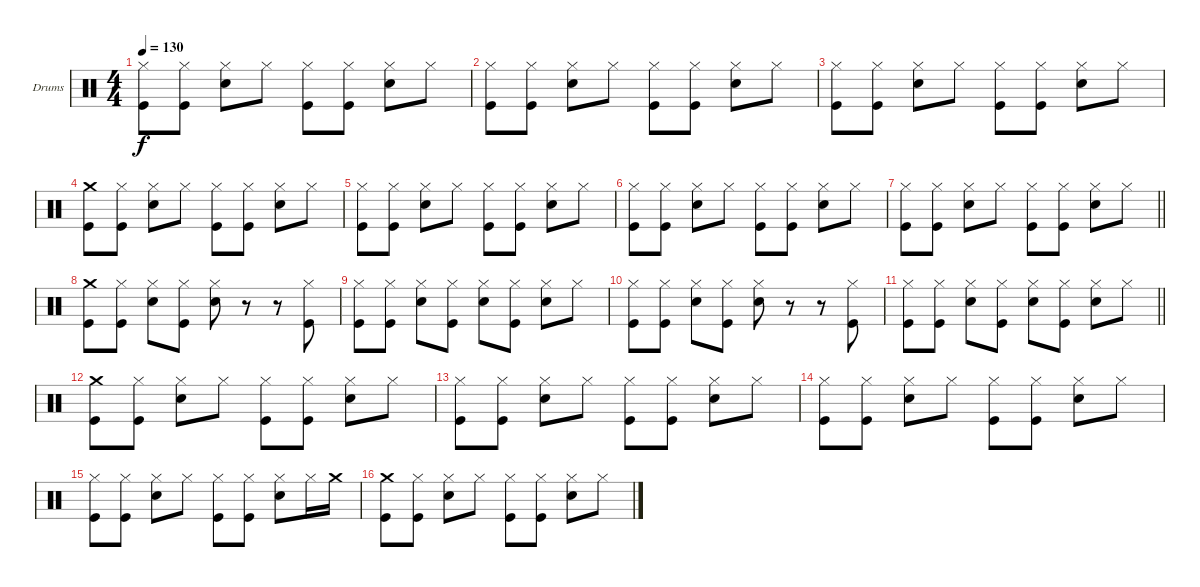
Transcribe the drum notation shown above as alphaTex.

\defaultSystemsLayout 4
\bracketExtendMode groupsimilarinstruments
\firstSystemTrackNameOrientation horizontal
\otherSystemsTrackNameOrientation horizontal
\track ("Drumkit" "Drums") {instrument percussion}
\staff {score}
\articulation defaults
\ts (4 4)
\tempo 130
\clef neutral
\ks aminor
("Kick (hit)" "Hi-Hat (closed)").8{dy f} ("Kick (hit)" "Hi-Hat (closed)").8 ("Snare (hit) 2" "Hi-Hat (closed)").8 "Hi-Hat (closed)".8 ("Kick (hit)" "Hi-Hat (closed)").8 ("Kick (hit)" "Hi-Hat (closed)").8 ("Snare (hit) 2" "Hi-Hat (closed)").8 "Hi-Hat (closed)".8 |
("Kick (hit)" "Hi-Hat (closed)").8 ("Kick (hit)" "Hi-Hat (closed)").8 ("Snare (hit) 2" "Hi-Hat (closed)").8 "Hi-Hat (closed)".8 ("Kick (hit)" "Hi-Hat (closed)").8 ("Kick (hit)" "Hi-Hat (closed)").8 ("Snare (hit) 2" "Hi-Hat (closed)").8 "Hi-Hat (closed)".8 |
("Kick (hit)" "Hi-Hat (closed)").8 ("Kick (hit)" "Hi-Hat (closed)").8 ("Snare (hit) 2" "Hi-Hat (closed)").8 "Hi-Hat (closed)".8 ("Kick (hit)" "Hi-Hat (closed)").8 ("Kick (hit)" "Hi-Hat (closed)").8 ("Snare (hit) 2" "Hi-Hat (closed)").8 "Hi-Hat (closed)".8 |
("Kick (hit)" "Crash medium (hit)").8 ("Kick (hit)" "Hi-Hat (closed)").8 ("Snare (hit) 2" "Hi-Hat (closed)").8 "Hi-Hat (closed)".8 ("Kick (hit)" "Hi-Hat (closed)").8 ("Kick (hit)" "Hi-Hat (closed)").8 ("Snare (hit) 2" "Hi-Hat (closed)").8 "Hi-Hat (closed)".8 |
("Kick (hit)" "Hi-Hat (closed)").8 ("Kick (hit)" "Hi-Hat (closed)").8 ("Snare (hit) 2" "Hi-Hat (closed)").8 "Hi-Hat (closed)".8 ("Kick (hit)" "Hi-Hat (closed)").8 ("Kick (hit)" "Hi-Hat (closed)").8 ("Snare (hit) 2" "Hi-Hat (closed)").8 "Hi-Hat (closed)".8 |
("Kick (hit)" "Hi-Hat (closed)").8 ("Kick (hit)" "Hi-Hat (closed)").8 ("Snare (hit) 2" "Hi-Hat (closed)").8 "Hi-Hat (closed)".8 ("Kick (hit)" "Hi-Hat (closed)").8 ("Kick (hit)" "Hi-Hat (closed)").8 ("Snare (hit) 2" "Hi-Hat (closed)").8 "Hi-Hat (closed)".8 |
\barLineRight lightlight
("Kick (hit)" "Hi-Hat (closed)").8 ("Kick (hit)" "Hi-Hat (closed)").8 ("Snare (hit) 2" "Hi-Hat (closed)").8 "Hi-Hat (closed)".8 ("Kick (hit)" "Hi-Hat (closed)").8 ("Kick (hit)" "Hi-Hat (closed)").8 ("Snare (hit) 2" "Hi-Hat (closed)").8 "Hi-Hat (closed)".8 |
("Kick (hit)" "Crash medium (hit)").8 ("Kick (hit)" "Hi-Hat (closed)").8 ("Snare (hit) 2" "Hi-Hat (closed)").8 ("Kick (hit)" "Hi-Hat (closed)").8 ("Snare (hit) 2" "Hi-Hat (closed)").8 r.8 r.8 ("Kick (hit)" "Hi-Hat (closed)").8 |
("Kick (hit)" "Hi-Hat (closed)").8 ("Kick (hit)" "Hi-Hat (closed)").8 ("Snare (hit) 2" "Hi-Hat (closed)").8 ("Kick (hit)" "Hi-Hat (closed)").8 ("Snare (hit) 2" "Hi-Hat (closed)").8 ("Kick (hit)" "Hi-Hat (closed)").8 ("Snare (hit) 2" "Hi-Hat (closed)").8 "Hi-Hat (closed)".8 |
("Kick (hit)" "Hi-Hat (closed)").8 ("Kick (hit)" "Hi-Hat (closed)").8 ("Snare (hit) 2" "Hi-Hat (closed)").8 ("Kick (hit)" "Hi-Hat (closed)").8 ("Snare (hit) 2" "Hi-Hat (closed)").8 r.8 r.8 ("Kick (hit)" "Hi-Hat (closed)").8 |
\barLineRight lightlight
("Kick (hit)" "Hi-Hat (closed)").8 ("Kick (hit)" "Hi-Hat (closed)").8 ("Snare (hit) 2" "Hi-Hat (closed)").8 ("Kick (hit)" "Hi-Hat (closed)").8 ("Snare (hit) 2" "Hi-Hat (closed)").8 ("Kick (hit)" "Hi-Hat (closed)").8 ("Snare (hit) 2" "Hi-Hat (closed)").8 "Hi-Hat (closed)".8 |
("Kick (hit)" "Crash medium (hit)").8 ("Kick (hit)" "Hi-Hat (closed)").8 ("Snare (hit) 2" "Hi-Hat (closed)").8 "Hi-Hat (closed)".8 ("Kick (hit)" "Hi-Hat (closed)").8 ("Kick (hit)" "Hi-Hat (closed)").8 ("Snare (hit) 2" "Hi-Hat (closed)").8 "Hi-Hat (closed)".8 |
("Kick (hit)" "Hi-Hat (closed)").8 ("Kick (hit)" "Hi-Hat (closed)").8 ("Snare (hit) 2" "Hi-Hat (closed)").8 "Hi-Hat (closed)".8 ("Kick (hit)" "Hi-Hat (closed)").8 ("Kick (hit)" "Hi-Hat (closed)").8 ("Snare (hit) 2" "Hi-Hat (closed)").8 "Hi-Hat (closed)".8 |
("Kick (hit)" "Hi-Hat (closed)").8 ("Kick (hit)" "Hi-Hat (closed)").8 ("Snare (hit) 2" "Hi-Hat (closed)").8 "Hi-Hat (closed)".8 ("Kick (hit)" "Hi-Hat (closed)").8 ("Kick (hit)" "Hi-Hat (closed)").8 ("Snare (hit) 2" "Hi-Hat (closed)").8 "Hi-Hat (closed)".8 |
("Kick (hit)" "Hi-Hat (closed)").8 ("Kick (hit)" "Hi-Hat (closed)").8 ("Snare (hit) 2" "Hi-Hat (closed)").8 "Hi-Hat (closed)".8 ("Kick (hit)" "Hi-Hat (closed)").8 ("Kick (hit)" "Hi-Hat (closed)").8 ("Snare (hit) 2" "Hi-Hat (closed)").8 "Hi-Hat (closed)".16 "Crash medium (hit)".16 |
("Kick (hit)" "Crash medium (hit)").8 ("Kick (hit)" "Hi-Hat (closed)").8 ("Snare (hit) 2" "Hi-Hat (closed)").8 "Hi-Hat (closed)".8 ("Kick (hit)" "Hi-Hat (closed)").8 ("Kick (hit)" "Hi-Hat (closed)").8 ("Snare (hit) 2" "Hi-Hat (closed)").8 "Hi-Hat (closed)".8
